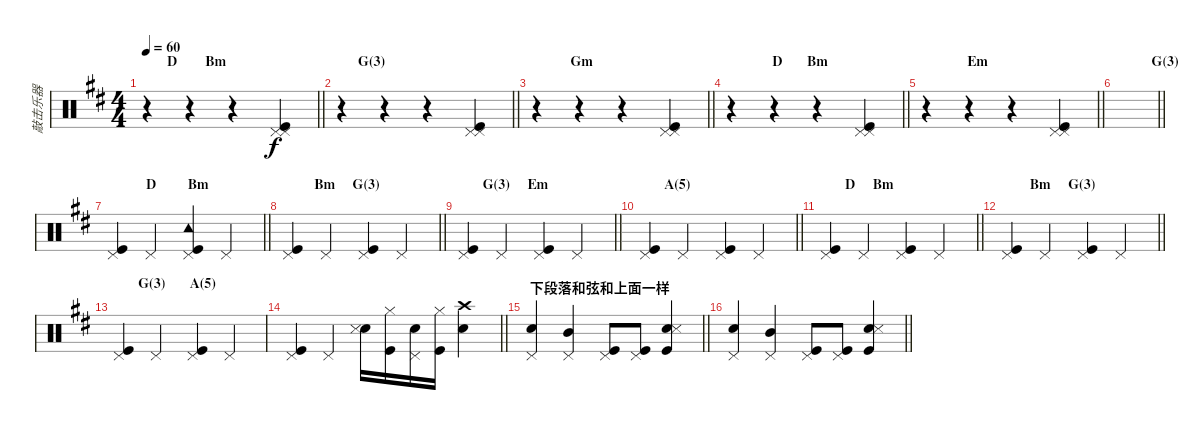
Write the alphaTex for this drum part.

\track ("敲击乐器" "敲击乐器") {instrument percussion}
\staff {score}
\articulation defaults
\ts (4 4)
\section ("" "       D        Bm")
\tempo 60
\clef neutral
\barLineRight lightlight
\ks d
r.4{dy f} r.4 r.4 ("Pedal Hi-Hat (hit)" "Kick (hit)" "Pedal Hi-Hat (hit)").4 |
\section ("" "      G(3)")
\barLineRight lightlight
r.4 r.4 r.4 ("Pedal Hi-Hat (hit)" "Kick (hit)" "Pedal Hi-Hat (hit)").4 |
\section ("" "           Gm")
\barLineRight lightlight
r.4 r.4 r.4 ("Pedal Hi-Hat (hit)" "Kick (hit)" "Pedal Hi-Hat (hit)").4 |
\section ("" "             D       Bm")
\barLineRight lightlight
r.4 r.4 r.4 ("Pedal Hi-Hat (hit)" "Kick (hit)" "Pedal Hi-Hat (hit)").4 |
\section ("" "             Em")
\barLineRight lightlight
r.4 r.4 r.4 ("Pedal Hi-Hat (hit)" "Kick (hit)" "Pedal Hi-Hat (hit)").4 |
\section ("" "          G(3)       A(5)")
\barLineRight lightlight
|
\section ("" "           D         Bm")
\barLineRight lightlight
("Pedal Hi-Hat (hit)" "Kick (hit)").4 "Pedal Hi-Hat (hit)".4 ("Tambourine (hit)" "Kick (hit)" "Pedal Hi-Hat (hit)").4 "Pedal Hi-Hat (hit)".4 |
\section ("" "         Bm     G(3)")
\barLineRight lightlight
("Pedal Hi-Hat (hit)" "Kick (hit)").4 "Pedal Hi-Hat (hit)".4 ("Kick (hit)" "Pedal Hi-Hat (hit)").4 "Pedal Hi-Hat (hit)".4 |
\section ("" "       G(3)     Em")
\barLineRight lightlight
("Pedal Hi-Hat (hit)" "Kick (hit)").4 "Pedal Hi-Hat (hit)".4 ("Kick (hit)" "Pedal Hi-Hat (hit)").4 "Pedal Hi-Hat (hit)".4 |
\section ("" "       A(5)")
\barLineRight lightlight
("Pedal Hi-Hat (hit)" "Kick (hit)").4 "Pedal Hi-Hat (hit)".4 ("Kick (hit)" "Pedal Hi-Hat (hit)").4 "Pedal Hi-Hat (hit)".4 |
\section ("" "       D     Bm")
\barLineRight lightlight
("Pedal Hi-Hat (hit)" "Kick (hit)").4 "Pedal Hi-Hat (hit)".4 ("Kick (hit)" "Pedal Hi-Hat (hit)").4 "Pedal Hi-Hat (hit)".4 |
\section ("" "        Bm     G(3)")
\barLineRight lightlight
("Pedal Hi-Hat (hit)" "Kick (hit)").4 "Pedal Hi-Hat (hit)".4 ("Kick (hit)" "Pedal Hi-Hat (hit)").4 "Pedal Hi-Hat (hit)".4 |
\section ("" "       G(3)       A(5)")
("Pedal Hi-Hat (hit)" "Kick (hit)").4 "Pedal Hi-Hat (hit)".4 ("Kick (hit)" "Pedal Hi-Hat (hit)").4 "Pedal Hi-Hat (hit)".4 |
\barLineRight lightlight
("Pedal Hi-Hat (hit)" "Kick (hit)").4 "Pedal Hi-Hat (hit)".4 ("Snare (hit) 2" "Snare (side stick) 3").16 ("Kick (hit)" "Hi-Hat (closed)").16 ("Pedal Hi-Hat (hit)" "Snare (hit) 2").16 ("Kick (hit)" "Hi-Hat (closed)").16 ("Snare (hit) 2" "Crash high (hit)").4 |
\section ("" " 下段落和弦和上面一样")
\barLineRight lightlight
("Snare (hit) 2" "Pedal Hi-Hat (hit)").4 ("Pedal Hi-Hat (hit)" "Mid Tom (hit)").4 ("Kick (hit)" "Pedal Hi-Hat (hit)").8 ("Pedal Hi-Hat (hit)" "Kick (hit)").8 ("Snare (hit) 2" "Snare (side stick) 3" "Kick (hit)").4 |
\barLineRight lightlight
("Snare (hit) 2" "Pedal Hi-Hat (hit)").4 ("Pedal Hi-Hat (hit)" "Mid Tom (hit)").4 ("Kick (hit)" "Pedal Hi-Hat (hit)").8 ("Pedal Hi-Hat (hit)" "Kick (hit)").8 ("Snare (hit) 2" "Snare (side stick) 3" "Kick (hit)").4
